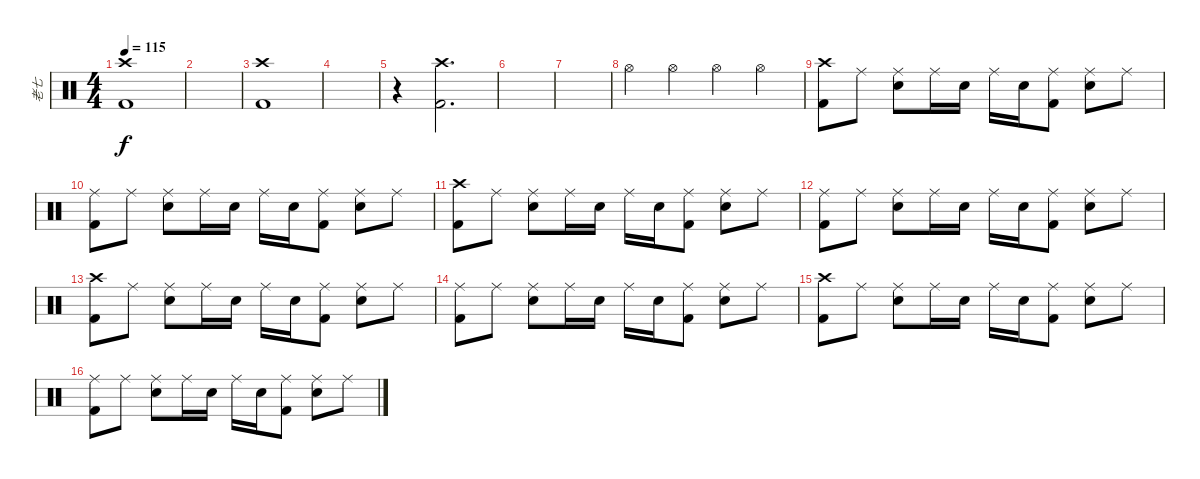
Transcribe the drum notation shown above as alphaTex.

\track ("老七" "老七") {instrument percussion}
\staff {score}
\articulation defaults
\ts (4 4)
\tempo 115
\clef neutral
\ks c
("Crash high (hit)" "Kick (hit) 2").1{dy f} |
|
("Crash high (hit)" "Kick (hit) 2").1 |
|
r.4 ("Crash high (hit)" "Kick (hit) 2").2{d} |
|
|
"Hi-Hat (open)".4 "Hi-Hat (open)".4 "Hi-Hat (open)".4 "Hi-Hat (open)".4 |
("Crash high (hit)" "Kick (hit) 2").8 "Ride (middle)".8 ("Ride (middle)" "Electric Snare (hit)").8 "Ride (middle)".16 "Electric Snare (hit)".16 "Ride (middle)".16 "Electric Snare (hit)".16 ("Ride (middle)" "Kick (hit) 2").8 ("Ride (middle)" "Electric Snare (hit)").8 "Ride (middle)".8 |
("Ride (middle)" "Kick (hit) 2").8 "Ride (middle)".8 ("Ride (middle)" "Electric Snare (hit)").8 "Ride (middle)".16 "Electric Snare (hit)".16 "Ride (middle)".16 "Electric Snare (hit)".16 ("Ride (middle)" "Kick (hit) 2").8 ("Ride (middle)" "Electric Snare (hit)").8 "Ride (middle)".8 |
("Crash high (hit)" "Kick (hit) 2").8 "Ride (middle)".8 ("Ride (middle)" "Electric Snare (hit)").8 "Ride (middle)".16 "Electric Snare (hit)".16 "Ride (middle)".16 "Electric Snare (hit)".16 ("Ride (middle)" "Kick (hit) 2").8 ("Ride (middle)" "Electric Snare (hit)").8 "Ride (middle)".8 |
("Ride (middle)" "Kick (hit) 2").8 "Ride (middle)".8 ("Ride (middle)" "Electric Snare (hit)").8 "Ride (middle)".16 "Electric Snare (hit)".16 "Ride (middle)".16 "Electric Snare (hit)".16 ("Ride (middle)" "Kick (hit) 2").8 ("Ride (middle)" "Electric Snare (hit)").8 "Ride (middle)".8 |
("Crash high (hit)" "Kick (hit) 2").8 "Ride (middle)".8 ("Ride (middle)" "Electric Snare (hit)").8 "Ride (middle)".16 "Electric Snare (hit)".16 "Ride (middle)".16 "Electric Snare (hit)".16 ("Ride (middle)" "Kick (hit) 2").8 ("Ride (middle)" "Electric Snare (hit)").8 "Ride (middle)".8 |
("Ride (middle)" "Kick (hit) 2").8 "Ride (middle)".8 ("Ride (middle)" "Electric Snare (hit)").8 "Ride (middle)".16 "Electric Snare (hit)".16 "Ride (middle)".16 "Electric Snare (hit)".16 ("Ride (middle)" "Kick (hit) 2").8 ("Ride (middle)" "Electric Snare (hit)").8 "Ride (middle)".8 |
("Crash high (hit)" "Kick (hit) 2").8 "Ride (middle)".8 ("Ride (middle)" "Electric Snare (hit)").8 "Ride (middle)".16 "Electric Snare (hit)".16 "Ride (middle)".16 "Electric Snare (hit)".16 ("Ride (middle)" "Kick (hit) 2").8 ("Ride (middle)" "Electric Snare (hit)").8 "Ride (middle)".8 |
("Ride (middle)" "Kick (hit) 2").8 "Ride (middle)".8 ("Ride (middle)" "Electric Snare (hit)").8 "Ride (middle)".16 "Electric Snare (hit)".16 "Ride (middle)".16 "Electric Snare (hit)".16 ("Ride (middle)" "Kick (hit) 2").8 ("Ride (middle)" "Electric Snare (hit)").8 "Ride (middle)".8
